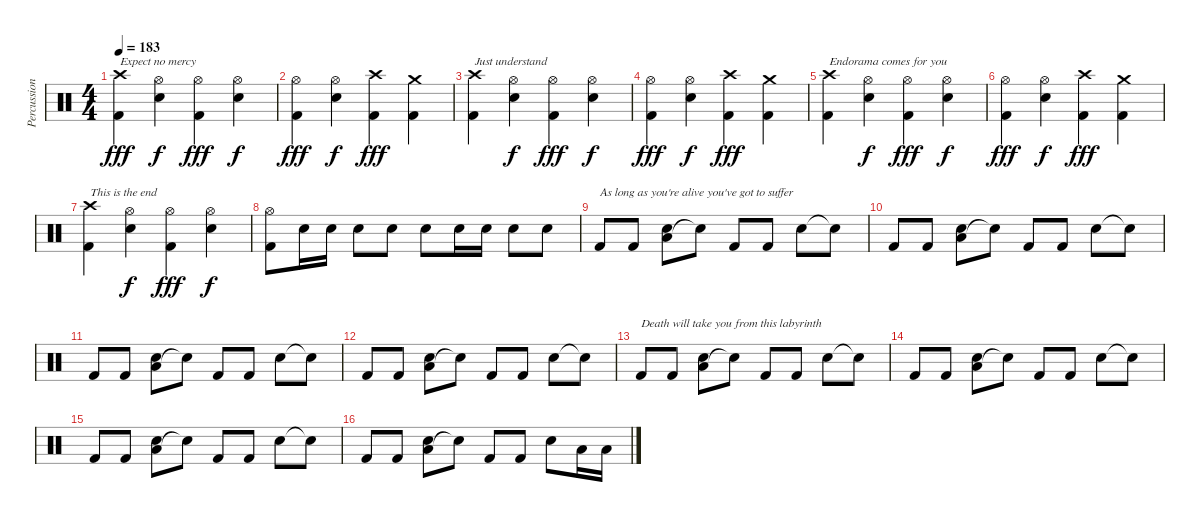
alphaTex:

\track ("Percussion" "Percussion") {instrument percussion}
\staff {score}
\articulation defaults
\ts (4 4)
\tempo 183
\clef neutral
\ks c
("Crash high (hit)" "Kick (hit) 2").4{txt "Expect no mercy" dy fff} ("Hi-Hat (open)" "Snare (hit) 2").4{dy f} ("Hi-Hat (open)" "Kick (hit) 2").4{dy fff} ("Hi-Hat (open)" "Snare (hit) 2").4{dy f} |
("Hi-Hat (open)" "Kick (hit) 2").4{dy fff} ("Hi-Hat (open)" "Snare (hit) 2").4{dy f} ("Crash high (hit)" "Kick (hit) 2").4{dy fff} ("Crash medium (hit)" "Kick (hit) 2").4 |
("Crash high (hit)" "Kick (hit) 2").4{txt "Just understand"} ("Hi-Hat (open)" "Snare (hit) 2").4{dy f} ("Hi-Hat (open)" "Kick (hit) 2").4{dy fff} ("Hi-Hat (open)" "Snare (hit) 2").4{dy f} |
("Hi-Hat (open)" "Kick (hit) 2").4{dy fff} ("Hi-Hat (open)" "Snare (hit) 2").4{dy f} ("Crash high (hit)" "Kick (hit) 2").4{dy fff} ("Crash medium (hit)" "Kick (hit) 2").4 |
("Crash high (hit)" "Kick (hit) 2").4{txt "Endorama comes for you"} ("Hi-Hat (open)" "Snare (hit) 2").4{dy f} ("Hi-Hat (open)" "Kick (hit) 2").4{dy fff} ("Hi-Hat (open)" "Snare (hit) 2").4{dy f} |
("Hi-Hat (open)" "Kick (hit) 2").4{dy fff} ("Hi-Hat (open)" "Snare (hit) 2").4{dy f} ("Crash high (hit)" "Kick (hit) 2").4{dy fff} ("Crash medium (hit)" "Kick (hit) 2").4 |
("Crash high (hit)" "Kick (hit) 2").4{txt "This is the end"} ("Hi-Hat (open)" "Snare (hit) 2").4{dy f} ("Hi-Hat (open)" "Kick (hit) 2").4{dy fff} ("Hi-Hat (open)" "Snare (hit) 2").4{dy f} |
("Hi-Hat (open)" "Kick (hit) 2").8 "Snare (hit) 2".16 "Snare (hit) 2".16 "Snare (hit) 2".8 "Snare (hit) 2".8 "Snare (hit) 2".8 "Snare (hit) 2".16 "Snare (hit) 2".16 "Snare (hit) 2".8 "Snare (hit) 2".8 |
"Kick (hit) 2".8{txt "As long as you're alive you've got to suffer"} "Kick (hit) 2".8 ("Low Floor Tom (hit)" "Snare (hit) 2").8 "Snare (hit)"{t}.8 "Kick (hit) 2".8 "Kick (hit) 2".8 "Snare (hit) 2".8 "Snare (hit)"{t}.8 |
"Kick (hit) 2".8 "Kick (hit) 2".8 ("Low Floor Tom (hit)" "Snare (hit) 2").8 "Snare (hit)"{t}.8 "Kick (hit) 2".8 "Kick (hit) 2".8 "Snare (hit) 2".8 "Snare (hit)"{t}.8 |
"Kick (hit) 2".8 "Kick (hit) 2".8 ("Low Floor Tom (hit)" "Snare (hit) 2").8 "Snare (hit)"{t}.8 "Kick (hit) 2".8 "Kick (hit) 2".8 "Snare (hit) 2".8 "Snare (hit)"{t}.8 |
"Kick (hit) 2".8 "Kick (hit) 2".8 ("Low Floor Tom (hit)" "Snare (hit) 2").8 "Snare (hit)"{t}.8 "Kick (hit) 2".8 "Kick (hit) 2".8 "Snare (hit) 2".8 "Snare (hit)"{t}.8 |
"Kick (hit) 2".8{txt "Death will take you from this labyrinth"} "Kick (hit) 2".8 ("Low Floor Tom (hit)" "Snare (hit) 2").8 "Snare (hit)"{t}.8 "Kick (hit) 2".8 "Kick (hit) 2".8 "Snare (hit) 2".8 "Snare (hit)"{t}.8 |
"Kick (hit) 2".8 "Kick (hit) 2".8 ("Low Floor Tom (hit)" "Snare (hit) 2").8 "Snare (hit)"{t}.8 "Kick (hit) 2".8 "Kick (hit) 2".8 "Snare (hit) 2".8 "Snare (hit)"{t}.8 |
"Kick (hit) 2".8 "Kick (hit) 2".8 ("Low Floor Tom (hit)" "Snare (hit) 2").8 "Snare (hit)"{t}.8 "Kick (hit) 2".8 "Kick (hit) 2".8 "Snare (hit) 2".8 "Snare (hit)"{t}.8 |
"Kick (hit) 2".8 "Kick (hit) 2".8 ("Low Floor Tom (hit)" "Snare (hit) 2").8 "Snare (hit)"{t}.8 "Kick (hit) 2".8 "Kick (hit) 2".8 "Snare (hit) 2".8 "Low Floor Tom (hit)".16 "Low Floor Tom (hit)".16
